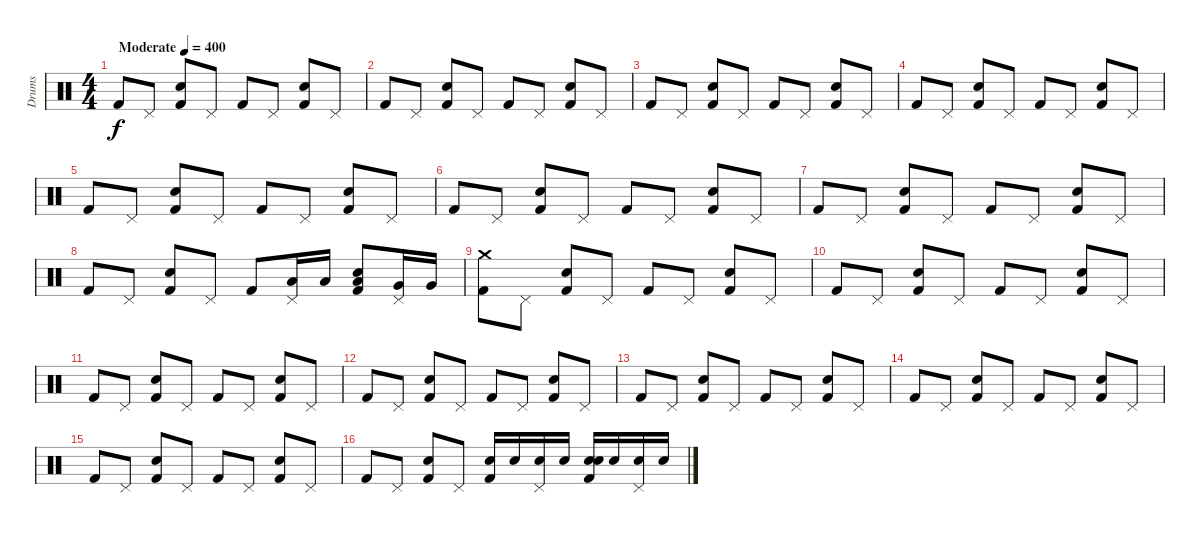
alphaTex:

\track ("Drums" "Drums") {instrument percussion}
\staff {score}
\articulation defaults
\ts (4 4)
\tempo (400 "Moderate")
\tempo 130
\tempo (400 "Moderate")
\clef neutral
\ks c "Kick (hit) 2".8{dy f} "Pedal Hi-Hat (hit)".8
("Snare (hit) 2" "Kick (hit) 2").8 "Pedal Hi-Hat (hit)".8 "Kick (hit) 2".8 "Pedal Hi-Hat (hit)".8 ("Snare (hit) 2" "Kick (hit) 2").8 "Pedal Hi-Hat (hit)".8 |
"Kick (hit) 2".8 "Pedal Hi-Hat (hit)".8 ("Snare (hit) 2" "Kick (hit) 2").8 "Pedal Hi-Hat (hit)".8 "Kick (hit) 2".8 "Pedal Hi-Hat (hit)".8 ("Snare (hit) 2" "Kick (hit) 2").8 "Pedal Hi-Hat (hit)".8 |
"Kick (hit) 2".8 "Pedal Hi-Hat (hit)".8 ("Snare (hit) 2" "Kick (hit) 2").8 "Pedal Hi-Hat (hit)".8 "Kick (hit) 2".8 "Pedal Hi-Hat (hit)".8 ("Snare (hit) 2" "Kick (hit) 2").8 "Pedal Hi-Hat (hit)".8 |
"Kick (hit) 2".8 "Pedal Hi-Hat (hit)".8 ("Snare (hit) 2" "Kick (hit) 2").8 "Pedal Hi-Hat (hit)".8 "Kick (hit) 2".8 "Pedal Hi-Hat (hit)".8 ("Snare (hit) 2" "Kick (hit) 2").8 "Pedal Hi-Hat (hit)".8 |
"Kick (hit) 2".8 "Pedal Hi-Hat (hit)".8 ("Snare (hit) 2" "Kick (hit) 2").8 "Pedal Hi-Hat (hit)".8 "Kick (hit) 2".8 "Pedal Hi-Hat (hit)".8 ("Snare (hit) 2" "Kick (hit) 2").8 "Pedal Hi-Hat (hit)".8 |
"Kick (hit) 2".8 "Pedal Hi-Hat (hit)".8 ("Snare (hit) 2" "Kick (hit) 2").8 "Pedal Hi-Hat (hit)".8 "Kick (hit) 2".8 "Pedal Hi-Hat (hit)".8 ("Snare (hit) 2" "Kick (hit) 2").8 "Pedal Hi-Hat (hit)".8 |
"Kick (hit) 2".8 "Pedal Hi-Hat (hit)".8 ("Snare (hit) 2" "Kick (hit) 2").8 "Pedal Hi-Hat (hit)".8 "Kick (hit) 2".8 "Pedal Hi-Hat (hit)".8 ("Snare (hit) 2" "Kick (hit) 2").8 "Pedal Hi-Hat (hit)".8 |
"Kick (hit) 2".8 "Pedal Hi-Hat (hit)".8 ("Snare (hit) 2" "Kick (hit) 2").8 "Pedal Hi-Hat (hit)".8 "Kick (hit) 2".8 ("Low Tom (hit)" "Pedal Hi-Hat (hit)").16 "Low Tom (hit)".16 ("Low Tom (hit)" "Snare (hit) 2" "Kick (hit) 2").8 ("Pedal Hi-Hat (hit)" "Very Low Tom (hit)").16 "Very Low Tom (hit)".16 |
("Crash medium (hit)" "Kick (hit) 2").8 "Pedal Hi-Hat (hit)".8 ("Snare (hit) 2" "Kick (hit) 2").8 "Pedal Hi-Hat (hit)".8 "Kick (hit) 2".8 "Pedal Hi-Hat (hit)".8 ("Snare (hit) 2" "Kick (hit) 2").8 "Pedal Hi-Hat (hit)".8 |
"Kick (hit) 2".8 "Pedal Hi-Hat (hit)".8 ("Snare (hit) 2" "Kick (hit) 2").8 "Pedal Hi-Hat (hit)".8 "Kick (hit) 2".8 "Pedal Hi-Hat (hit)".8 ("Snare (hit) 2" "Kick (hit) 2").8 "Pedal Hi-Hat (hit)".8 |
"Kick (hit) 2".8 "Pedal Hi-Hat (hit)".8 ("Snare (hit) 2" "Kick (hit) 2").8 "Pedal Hi-Hat (hit)".8 "Kick (hit) 2".8 "Pedal Hi-Hat (hit)".8 ("Snare (hit) 2" "Kick (hit) 2").8 "Pedal Hi-Hat (hit)".8 |
"Kick (hit) 2".8 "Pedal Hi-Hat (hit)".8 ("Snare (hit) 2" "Kick (hit) 2").8 "Pedal Hi-Hat (hit)".8 "Kick (hit) 2".8 "Pedal Hi-Hat (hit)".8 ("Snare (hit) 2" "Kick (hit) 2").8 "Pedal Hi-Hat (hit)".8 |
"Kick (hit) 2".8 "Pedal Hi-Hat (hit)".8 ("Snare (hit) 2" "Kick (hit) 2").8 "Pedal Hi-Hat (hit)".8 "Kick (hit) 2".8 "Pedal Hi-Hat (hit)".8 ("Snare (hit) 2" "Kick (hit) 2").8 "Pedal Hi-Hat (hit)".8 |
"Kick (hit) 2".8 "Pedal Hi-Hat (hit)".8 ("Snare (hit) 2" "Kick (hit) 2").8 "Pedal Hi-Hat (hit)".8 "Kick (hit) 2".8 "Pedal Hi-Hat (hit)".8 ("Snare (hit) 2" "Kick (hit) 2").8 "Pedal Hi-Hat (hit)".8 |
"Kick (hit) 2".8 "Pedal Hi-Hat (hit)".8 ("Snare (hit) 2" "Kick (hit) 2").8 "Pedal Hi-Hat (hit)".8 "Kick (hit) 2".8 "Pedal Hi-Hat (hit)".8 ("Snare (hit) 2" "Kick (hit) 2").8 "Pedal Hi-Hat (hit)".8 |
"Kick (hit) 2".8 "Pedal Hi-Hat (hit)".8 ("Snare (hit) 2" "Kick (hit) 2").8 "Pedal Hi-Hat (hit)".8 ("Electric Snare (hit)" "Kick (hit) 2").16 "Electric Snare (hit)".16 ("Pedal Hi-Hat (hit)" "Electric Snare (hit)").16 "Electric Snare (hit)".16 ("Electric Snare (hit)" "Snare (hit) 2" "Kick (hit) 2").16 "Electric Snare (hit)".16 ("Pedal Hi-Hat (hit)" "Electric Snare (hit)").16 "Electric Snare (hit)".16
